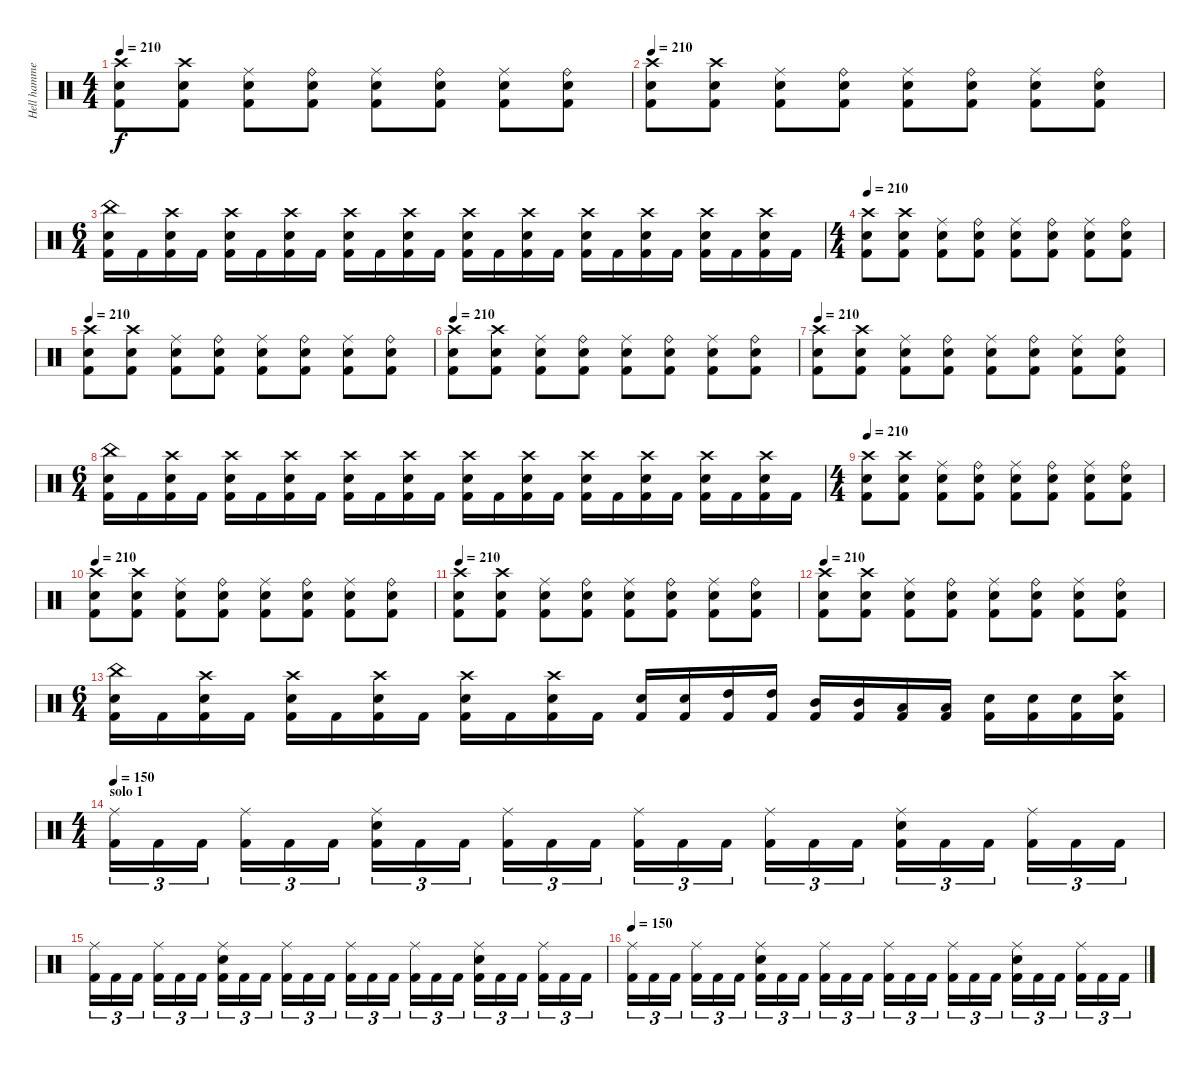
\track ("Hell hammers" "Hell hamme") {instrument percussion}
\staff {score}
\articulation defaults
\ts (4 4)
\tempo 210
\clef neutral
\ks c
("Crash high (hit)" "Snare (hit) 2" "Kick (hit) 2").8{dy f} ("Crash high (hit)" "Snare (hit) 2" "Kick (hit) 2").8 ("Ride (middle)" "Snare (hit) 2" "Kick (hit) 2").8 ("Ride (bell)" "Snare (hit) 2" "Kick (hit) 2").8 ("Ride (middle)" "Snare (hit) 2" "Kick (hit) 2").8 ("Ride (bell)" "Snare (hit) 2" "Kick (hit) 2").8 ("Ride (middle)" "Snare (hit) 2" "Kick (hit) 2").8 ("Ride (bell)" "Snare (hit) 2" "Kick (hit) 2").8 |
\tempo 210
("Crash high (hit)" "Snare (hit) 2" "Kick (hit) 2").8 ("Crash high (hit)" "Snare (hit) 2" "Kick (hit) 2").8 ("Ride (middle)" "Snare (hit) 2" "Kick (hit) 2").8 ("Ride (bell)" "Snare (hit) 2" "Kick (hit) 2").8 ("Ride (middle)" "Snare (hit) 2" "Kick (hit) 2").8 ("Ride (bell)" "Snare (hit) 2" "Kick (hit) 2").8 ("Ride (middle)" "Snare (hit) 2" "Kick (hit) 2").8 ("Ride (bell)" "Snare (hit) 2" "Kick (hit) 2").8 |
\ts (6 4)
("China (hit)" "Snare (hit) 2" "Kick (hit) 2").16 "Kick (hit) 2".16 ("Crash high (hit)" "Snare (hit) 2" "Kick (hit) 2").16 "Kick (hit) 2".16 ("Crash high (hit)" "Snare (hit) 2" "Kick (hit) 2").16 "Kick (hit) 2".16 ("Crash high (hit)" "Snare (hit) 2" "Kick (hit) 2").16 "Kick (hit) 2".16 ("Crash high (hit)" "Snare (hit) 2" "Kick (hit) 2").16 "Kick (hit) 2".16 ("Crash high (hit)" "Snare (hit) 2" "Kick (hit) 2").16 "Kick (hit) 2".16 ("Crash high (hit)" "Snare (hit) 2" "Kick (hit) 2").16 "Kick (hit) 2".16 ("Crash high (hit)" "Snare (hit) 2" "Kick (hit) 2").16 "Kick (hit) 2".16 ("Crash high (hit)" "Snare (hit) 2" "Kick (hit) 2").16 "Kick (hit) 2".16 ("Crash high (hit)" "Snare (hit) 2" "Kick (hit) 2").16 "Kick (hit) 2".16 ("Crash high (hit)" "Snare (hit) 2" "Kick (hit) 2").16 "Kick (hit) 2".16 ("Crash high (hit)" "Snare (hit) 2" "Kick (hit) 2").16 "Kick (hit) 2".16 |
\ts (4 4)
\tempo 210
("Crash high (hit)" "Snare (hit) 2" "Kick (hit) 2").8 ("Crash high (hit)" "Snare (hit) 2" "Kick (hit) 2").8 ("Ride (middle)" "Snare (hit) 2" "Kick (hit) 2").8 ("Ride (bell)" "Snare (hit) 2" "Kick (hit) 2").8 ("Ride (middle)" "Snare (hit) 2" "Kick (hit) 2").8 ("Ride (bell)" "Snare (hit) 2" "Kick (hit) 2").8 ("Ride (middle)" "Snare (hit) 2" "Kick (hit) 2").8 ("Ride (bell)" "Snare (hit) 2" "Kick (hit) 2").8 |
\tempo 210
("Crash high (hit)" "Snare (hit) 2" "Kick (hit) 2").8 ("Crash high (hit)" "Snare (hit) 2" "Kick (hit) 2").8 ("Ride (middle)" "Snare (hit) 2" "Kick (hit) 2").8 ("Ride (bell)" "Snare (hit) 2" "Kick (hit) 2").8 ("Ride (middle)" "Snare (hit) 2" "Kick (hit) 2").8 ("Ride (bell)" "Snare (hit) 2" "Kick (hit) 2").8 ("Ride (middle)" "Snare (hit) 2" "Kick (hit) 2").8 ("Ride (bell)" "Snare (hit) 2" "Kick (hit) 2").8 |
\tempo 210
("Crash high (hit)" "Snare (hit) 2" "Kick (hit) 2").8 ("Crash high (hit)" "Snare (hit) 2" "Kick (hit) 2").8 ("Ride (middle)" "Snare (hit) 2" "Kick (hit) 2").8 ("Ride (bell)" "Snare (hit) 2" "Kick (hit) 2").8 ("Ride (middle)" "Snare (hit) 2" "Kick (hit) 2").8 ("Ride (bell)" "Snare (hit) 2" "Kick (hit) 2").8 ("Ride (middle)" "Snare (hit) 2" "Kick (hit) 2").8 ("Ride (bell)" "Snare (hit) 2" "Kick (hit) 2").8 |
\tempo 210
("Crash high (hit)" "Snare (hit) 2" "Kick (hit) 2").8 ("Crash high (hit)" "Snare (hit) 2" "Kick (hit) 2").8 ("Ride (middle)" "Snare (hit) 2" "Kick (hit) 2").8 ("Ride (bell)" "Snare (hit) 2" "Kick (hit) 2").8 ("Ride (middle)" "Snare (hit) 2" "Kick (hit) 2").8 ("Ride (bell)" "Snare (hit) 2" "Kick (hit) 2").8 ("Ride (middle)" "Snare (hit) 2" "Kick (hit) 2").8 ("Ride (bell)" "Snare (hit) 2" "Kick (hit) 2").8 |
\ts (6 4)
("China (hit)" "Snare (hit) 2" "Kick (hit) 2").16 "Kick (hit) 2".16 ("Crash high (hit)" "Snare (hit) 2" "Kick (hit) 2").16 "Kick (hit) 2".16 ("Crash high (hit)" "Snare (hit) 2" "Kick (hit) 2").16 "Kick (hit) 2".16 ("Crash high (hit)" "Snare (hit) 2" "Kick (hit) 2").16 "Kick (hit) 2".16 ("Crash high (hit)" "Snare (hit) 2" "Kick (hit) 2").16 "Kick (hit) 2".16 ("Crash high (hit)" "Snare (hit) 2" "Kick (hit) 2").16 "Kick (hit) 2".16 ("Crash high (hit)" "Snare (hit) 2" "Kick (hit) 2").16 "Kick (hit) 2".16 ("Crash high (hit)" "Snare (hit) 2" "Kick (hit) 2").16 "Kick (hit) 2".16 ("Crash high (hit)" "Snare (hit) 2" "Kick (hit) 2").16 "Kick (hit) 2".16 ("Crash high (hit)" "Snare (hit) 2" "Kick (hit) 2").16 "Kick (hit) 2".16 ("Crash high (hit)" "Snare (hit) 2" "Kick (hit) 2").16 "Kick (hit) 2".16 ("Crash high (hit)" "Snare (hit) 2" "Kick (hit) 2").16 "Kick (hit) 2".16 |
\ts (4 4)
\tempo 210
("Crash high (hit)" "Snare (hit) 2" "Kick (hit) 2").8 ("Crash high (hit)" "Snare (hit) 2" "Kick (hit) 2").8 ("Ride (middle)" "Snare (hit) 2" "Kick (hit) 2").8 ("Ride (bell)" "Snare (hit) 2" "Kick (hit) 2").8 ("Ride (middle)" "Snare (hit) 2" "Kick (hit) 2").8 ("Ride (bell)" "Snare (hit) 2" "Kick (hit) 2").8 ("Ride (middle)" "Snare (hit) 2" "Kick (hit) 2").8 ("Ride (bell)" "Snare (hit) 2" "Kick (hit) 2").8 |
\tempo 210
("Crash high (hit)" "Snare (hit) 2" "Kick (hit) 2").8 ("Crash high (hit)" "Snare (hit) 2" "Kick (hit) 2").8 ("Ride (middle)" "Snare (hit) 2" "Kick (hit) 2").8 ("Ride (bell)" "Snare (hit) 2" "Kick (hit) 2").8 ("Ride (middle)" "Snare (hit) 2" "Kick (hit) 2").8 ("Ride (bell)" "Snare (hit) 2" "Kick (hit) 2").8 ("Ride (middle)" "Snare (hit) 2" "Kick (hit) 2").8 ("Ride (bell)" "Snare (hit) 2" "Kick (hit) 2").8 |
\tempo 210
("Crash high (hit)" "Snare (hit) 2" "Kick (hit) 2").8 ("Crash high (hit)" "Snare (hit) 2" "Kick (hit) 2").8 ("Ride (middle)" "Snare (hit) 2" "Kick (hit) 2").8 ("Ride (bell)" "Snare (hit) 2" "Kick (hit) 2").8 ("Ride (middle)" "Snare (hit) 2" "Kick (hit) 2").8 ("Ride (bell)" "Snare (hit) 2" "Kick (hit) 2").8 ("Ride (middle)" "Snare (hit) 2" "Kick (hit) 2").8 ("Ride (bell)" "Snare (hit) 2" "Kick (hit) 2").8 |
\tempo 210
("Crash high (hit)" "Snare (hit) 2" "Kick (hit) 2").8 ("Crash high (hit)" "Snare (hit) 2" "Kick (hit) 2").8 ("Ride (middle)" "Snare (hit) 2" "Kick (hit) 2").8 ("Ride (bell)" "Snare (hit) 2" "Kick (hit) 2").8 ("Ride (middle)" "Snare (hit) 2" "Kick (hit) 2").8 ("Ride (bell)" "Snare (hit) 2" "Kick (hit) 2").8 ("Ride (middle)" "Snare (hit) 2" "Kick (hit) 2").8 ("Ride (bell)" "Snare (hit) 2" "Kick (hit) 2").8 |
\ts (6 4)
("China (hit)" "Snare (hit) 2" "Kick (hit) 2").16 "Kick (hit) 2".16 ("Crash high (hit)" "Snare (hit) 2" "Kick (hit) 2").16 "Kick (hit) 2".16 ("Crash high (hit)" "Snare (hit) 2" "Kick (hit) 2").16 "Kick (hit) 2".16 ("Crash high (hit)" "Snare (hit) 2" "Kick (hit) 2").16 "Kick (hit) 2".16 ("Crash high (hit)" "Snare (hit) 2" "Kick (hit) 2").16 "Kick (hit) 2".16 ("Crash high (hit)" "Snare (hit) 2" "Kick (hit) 2").16 "Kick (hit) 2".16 ("Snare (hit) 2" "Kick (hit) 2").16 ("Snare (hit) 2" "Kick (hit) 2").16 ("High Tom (hit)" "Kick (hit) 2").16 ("High Tom (hit)" "Kick (hit) 2").16 ("Mid Tom (hit)" "Kick (hit) 2").16 ("Mid Tom (hit)" "Kick (hit) 2").16 ("Low Tom (hit)" "Kick (hit) 2").16 ("Low Tom (hit)" "Kick (hit) 2").16 ("Snare (hit) 2" "Kick (hit) 2").16 ("Snare (hit) 2" "Kick (hit) 2").16 ("Snare (hit) 2" "Kick (hit) 2").16 ("Crash high (hit)" "Snare (hit) 2" "Kick (hit) 2").16 |
\ts (4 4)
\section ("" "solo 1")
\tempo 150
("Ride (middle)" "Kick (hit) 2").16{tu (3 2)} "Kick (hit) 2".16{tu (3 2)} "Kick (hit) 2".16{tu (3 2)} ("Ride (middle)" "Kick (hit) 2").16{tu (3 2)} "Kick (hit) 2".16{tu (3 2)} "Kick (hit) 2".16{tu (3 2)} ("Ride (middle)" "Snare (hit) 2" "Kick (hit) 2").16{tu (3 2)} "Kick (hit) 2".16{tu (3 2)} "Kick (hit) 2".16{tu (3 2)} ("Ride (middle)" "Kick (hit) 2").16{tu (3 2)} "Kick (hit) 2".16{tu (3 2)} "Kick (hit) 2".16{tu (3 2)} ("Ride (middle)" "Kick (hit) 2").16{tu (3 2)} "Kick (hit) 2".16{tu (3 2)} "Kick (hit) 2".16{tu (3 2)} ("Ride (middle)" "Kick (hit) 2").16{tu (3 2)} "Kick (hit) 2".16{tu (3 2)} "Kick (hit) 2".16{tu (3 2)} ("Ride (middle)" "Snare (hit) 2" "Kick (hit) 2").16{tu (3 2)} "Kick (hit) 2".16{tu (3 2)} "Kick (hit) 2".16{tu (3 2)} ("Ride (middle)" "Kick (hit) 2").16{tu (3 2)} "Kick (hit) 2".16{tu (3 2)} "Kick (hit) 2".16{tu (3 2)} |
("Ride (middle)" "Kick (hit) 2").16{tu (3 2)} "Kick (hit) 2".16{tu (3 2)} "Kick (hit) 2".16{tu (3 2)} ("Ride (middle)" "Kick (hit) 2").16{tu (3 2)} "Kick (hit) 2".16{tu (3 2)} "Kick (hit) 2".16{tu (3 2)} ("Ride (middle)" "Snare (hit) 2" "Kick (hit) 2").16{tu (3 2)} "Kick (hit) 2".16{tu (3 2)} "Kick (hit) 2".16{tu (3 2)} ("Ride (middle)" "Kick (hit) 2").16{tu (3 2)} "Kick (hit) 2".16{tu (3 2)} "Kick (hit) 2".16{tu (3 2)} ("Ride (middle)" "Kick (hit) 2").16{tu (3 2)} "Kick (hit) 2".16{tu (3 2)} "Kick (hit) 2".16{tu (3 2)} ("Ride (middle)" "Kick (hit) 2").16{tu (3 2)} "Kick (hit) 2".16{tu (3 2)} "Kick (hit) 2".16{tu (3 2)} ("Ride (middle)" "Snare (hit) 2" "Kick (hit) 2").16{tu (3 2)} "Kick (hit) 2".16{tu (3 2)} "Kick (hit) 2".16{tu (3 2)} ("Ride (middle)" "Kick (hit) 2").16{tu (3 2)} "Kick (hit) 2".16{tu (3 2)} "Kick (hit) 2".16{tu (3 2)} |
\tempo 150
("Ride (middle)" "Kick (hit) 2").16{tu (3 2)} "Kick (hit) 2".16{tu (3 2)} "Kick (hit) 2".16{tu (3 2)} ("Ride (middle)" "Kick (hit) 2").16{tu (3 2)} "Kick (hit) 2".16{tu (3 2)} "Kick (hit) 2".16{tu (3 2)} ("Ride (middle)" "Snare (hit) 2" "Kick (hit) 2").16{tu (3 2)} "Kick (hit) 2".16{tu (3 2)} "Kick (hit) 2".16{tu (3 2)} ("Ride (middle)" "Kick (hit) 2").16{tu (3 2)} "Kick (hit) 2".16{tu (3 2)} "Kick (hit) 2".16{tu (3 2)} ("Ride (middle)" "Kick (hit) 2").16{tu (3 2)} "Kick (hit) 2".16{tu (3 2)} "Kick (hit) 2".16{tu (3 2)} ("Ride (middle)" "Kick (hit) 2").16{tu (3 2)} "Kick (hit) 2".16{tu (3 2)} "Kick (hit) 2".16{tu (3 2)} ("Ride (middle)" "Snare (hit) 2" "Kick (hit) 2").16{tu (3 2)} "Kick (hit) 2".16{tu (3 2)} "Kick (hit) 2".16{tu (3 2)} ("Ride (middle)" "Kick (hit) 2").16{tu (3 2)} "Kick (hit) 2".16{tu (3 2)} "Kick (hit) 2".16{tu (3 2)}
